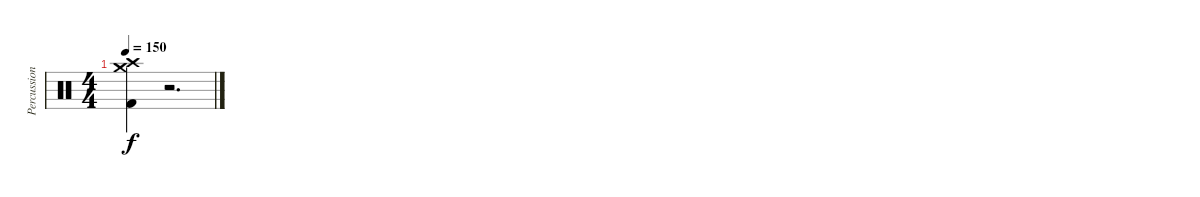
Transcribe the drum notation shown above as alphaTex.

\track ("Percussion" "Percussion") {instrument percussion}
\staff {score}
\articulation defaults
\ts (4 4)
\tempo 150
\clef neutral
\ks c
("Crash high (hit)" "Crash medium (hit)" "Kick (hit) 2").4{dy f} r.2{d}
